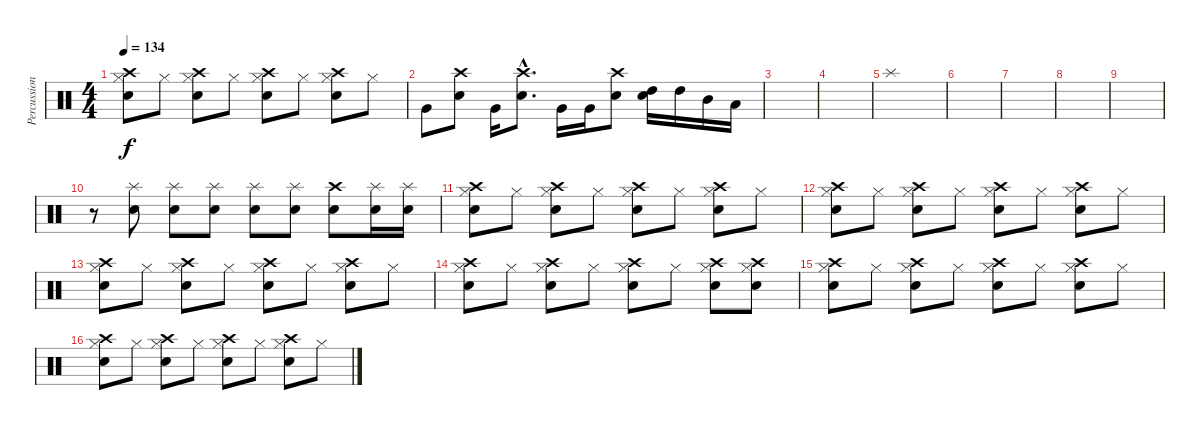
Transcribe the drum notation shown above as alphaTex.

\track ("Percussions" "Percussion") {instrument percussion}
\staff {score}
\articulation defaults
\ts (4 4)
\tempo 134
\clef neutral
\ks c
("Snare (hit) 2" "Hi-Hat (closed)" "Crash high (hit)").8{dy f} "Hi-Hat (closed)".8 ("Snare (hit) 2" "Hi-Hat (closed)" "Crash high (hit)").8 "Hi-Hat (closed)".8 ("Snare (hit) 2" "Hi-Hat (closed)" "Crash high (hit)").8 "Hi-Hat (closed)".8 ("Snare (hit) 2" "Hi-Hat (closed)" "Crash high (hit)").8 "Hi-Hat (closed)".8 |
"Very Low Tom (hit)".8 ("Electric Snare (hit)" "Crash high (hit)").8 "Very Low Tom (hit)".16 ("Electric Snare (hit)"{hac} "Crash high (hit)"{hac}).8{d} "Very Low Tom (hit)".16 "Very Low Tom (hit)".16 ("Electric Snare (hit)" "Crash high (hit)").8 ("Electric Snare (hit)" "High Tom (hit)").16 "High Tom (hit)".16 "Mid Tom (hit)".16 "Low Tom (hit)".16 |
|
|
"Splash (hit)".1 |
|
|
|
|
r.8 ("Electric Snare (hit)" "Splash (hit)").8 ("Electric Snare (hit)" "Splash (hit)").8 ("Electric Snare (hit)" "Splash (hit)").8 ("Electric Snare (hit)" "Splash (hit)").8 ("Electric Snare (hit)" "Splash (hit)").8 ("Electric Snare (hit)" "Crash high (hit)").8 ("Electric Snare (hit)" "Splash (hit)").16 ("Electric Snare (hit)" "Splash (hit)").16 |
("Snare (hit) 2" "Hi-Hat (closed)" "Crash high (hit)").8 "Hi-Hat (closed)".8 ("Snare (hit) 2" "Hi-Hat (closed)" "Crash high (hit)").8 "Hi-Hat (closed)".8 ("Snare (hit) 2" "Hi-Hat (closed)" "Crash high (hit)").8 "Hi-Hat (closed)".8 ("Snare (hit) 2" "Hi-Hat (closed)" "Crash high (hit)").8 "Hi-Hat (closed)".8 |
("Snare (hit) 2" "Hi-Hat (closed)" "Crash high (hit)").8 "Hi-Hat (closed)".8 ("Snare (hit) 2" "Hi-Hat (closed)" "Crash high (hit)").8 "Hi-Hat (closed)".8 ("Snare (hit) 2" "Hi-Hat (closed)" "Crash high (hit)").8 "Hi-Hat (closed)".8 ("Snare (hit) 2" "Hi-Hat (closed)" "Crash high (hit)").8 "Hi-Hat (closed)".8 |
("Snare (hit) 2" "Hi-Hat (closed)" "Crash high (hit)").8 "Hi-Hat (closed)".8 ("Snare (hit) 2" "Hi-Hat (closed)" "Crash high (hit)").8 "Hi-Hat (closed)".8 ("Snare (hit) 2" "Hi-Hat (closed)" "Crash high (hit)").8 "Hi-Hat (closed)".8 ("Snare (hit) 2" "Hi-Hat (closed)" "Crash high (hit)").8 "Hi-Hat (closed)".8 |
("Snare (hit) 2" "Hi-Hat (closed)" "Crash high (hit)").8 "Hi-Hat (closed)".8 ("Snare (hit) 2" "Hi-Hat (closed)" "Crash high (hit)").8 "Hi-Hat (closed)".8 ("Snare (hit) 2" "Hi-Hat (closed)" "Crash high (hit)").8 "Hi-Hat (closed)".8 ("Snare (hit) 2" "Hi-Hat (closed)" "Crash high (hit)").8 ("Snare (hit) 2" "Hi-Hat (closed)" "Crash high (hit)").8 |
("Snare (hit) 2" "Hi-Hat (closed)" "Crash high (hit)").8 "Hi-Hat (closed)".8 ("Snare (hit) 2" "Hi-Hat (closed)" "Crash high (hit)").8 "Hi-Hat (closed)".8 ("Snare (hit) 2" "Hi-Hat (closed)" "Crash high (hit)").8 "Hi-Hat (closed)".8 ("Snare (hit) 2" "Hi-Hat (closed)" "Crash high (hit)").8 "Hi-Hat (closed)".8 |
("Snare (hit) 2" "Hi-Hat (closed)" "Crash high (hit)").8 "Hi-Hat (closed)".8 ("Snare (hit) 2" "Hi-Hat (closed)" "Crash high (hit)").8 "Hi-Hat (closed)".8 ("Snare (hit) 2" "Hi-Hat (closed)" "Crash high (hit)").8 "Hi-Hat (closed)".8 ("Snare (hit) 2" "Hi-Hat (closed)" "Crash high (hit)").8 "Hi-Hat (closed)".8
